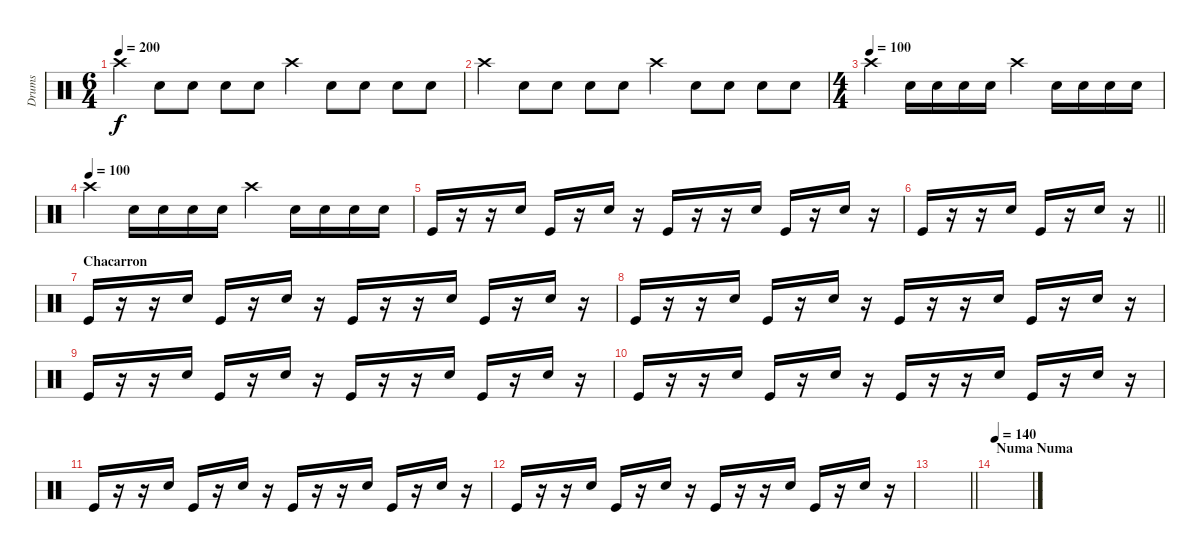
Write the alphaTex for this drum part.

\track ("Drums" "Drums") {instrument percussion}
\staff {score}
\articulation defaults
\ts (6 4)
\tempo 200
\clef neutral
\ks c "Crash high (hit)".4{dy f} "Electric Snare (hit)".8 "Electric Snare (hit)".8 "Electric Snare (hit)".8 "Electric Snare (hit)".8 "Crash high (hit)".4 "Electric Snare (hit)".8 "Electric Snare (hit)".8 "Electric Snare (hit)".8 "Electric Snare (hit)".8
|
"Crash high (hit)".4 "Electric Snare (hit)".8 "Electric Snare (hit)".8 "Electric Snare (hit)".8 "Electric Snare (hit)".8 "Crash high (hit)".4 "Electric Snare (hit)".8 "Electric Snare (hit)".8 "Electric Snare (hit)".8 "Electric Snare (hit)".8 |
\ts (4 4)
\tempo (100)
"Crash high (hit)".4 "Electric Snare (hit)".16 "Electric Snare (hit)".16 "Electric Snare (hit)".16 "Electric Snare (hit)".16 "Crash high (hit)".4 "Electric Snare (hit)".16 "Electric Snare (hit)".16 "Electric Snare (hit)".16 "Electric Snare (hit)".16 |
\tempo (100)
"Crash high (hit)".4 "Electric Snare (hit)".16 "Electric Snare (hit)".16 "Electric Snare (hit)".16 "Electric Snare (hit)".16 "Crash high (hit)".4 "Electric Snare (hit)".16 "Electric Snare (hit)".16 "Electric Snare (hit)".16 "Electric Snare (hit)".16 |
"Kick (hit)".16 r.16 r.16 "Electric Snare (hit)".16 "Kick (hit)".16 r.16 "Electric Snare (hit)".16 r.16 "Kick (hit)".16 r.16 r.16 "Electric Snare (hit)".16 "Kick (hit)".16 r.16 "Electric Snare (hit)".16 r.16 |
\barLineRight lightlight "Kick (hit)".16
r.16 r.16 "Electric Snare (hit)".16 "Kick (hit)".16 r.16 "Electric Snare (hit)".16 r.16 |
\section ("" "Chacarron")
"Kick (hit)".16 r.16 r.16 "Electric Snare (hit)".16 "Kick (hit)".16 r.16 "Electric Snare (hit)".16 r.16 "Kick (hit)".16 r.16 r.16 "Electric Snare (hit)".16 "Kick (hit)".16 r.16 "Electric Snare (hit)".16 r.16 |
"Kick (hit)".16 r.16 r.16 "Electric Snare (hit)".16 "Kick (hit)".16 r.16 "Electric Snare (hit)".16 r.16 "Kick (hit)".16 r.16 r.16 "Electric Snare (hit)".16 "Kick (hit)".16 r.16 "Electric Snare (hit)".16 r.16 |
"Kick (hit)".16 r.16 r.16 "Electric Snare (hit)".16 "Kick (hit)".16 r.16 "Electric Snare (hit)".16 r.16 "Kick (hit)".16 r.16 r.16 "Electric Snare (hit)".16 "Kick (hit)".16 r.16 "Electric Snare (hit)".16 r.16 |
"Kick (hit)".16 r.16 r.16 "Electric Snare (hit)".16 "Kick (hit)".16 r.16 "Electric Snare (hit)".16 r.16 "Kick (hit)".16 r.16 r.16 "Electric Snare (hit)".16 "Kick (hit)".16 r.16 "Electric Snare (hit)".16 r.16 |
"Kick (hit)".16 r.16 r.16 "Electric Snare (hit)".16 "Kick (hit)".16 r.16 "Electric Snare (hit)".16 r.16 "Kick (hit)".16 r.16 r.16 "Electric Snare (hit)".16 "Kick (hit)".16 r.16 "Electric Snare (hit)".16 r.16 |
"Kick (hit)".16 r.16 r.16 "Electric Snare (hit)".16 "Kick (hit)".16 r.16 "Electric Snare (hit)".16 r.16 "Kick (hit)".16 r.16 r.16 "Electric Snare (hit)".16 "Kick (hit)".16 r.16 "Electric Snare (hit)".16 r.16 |
\barLineRight lightlight
|
\section ("" "Numa Numa")
\tempo 140
